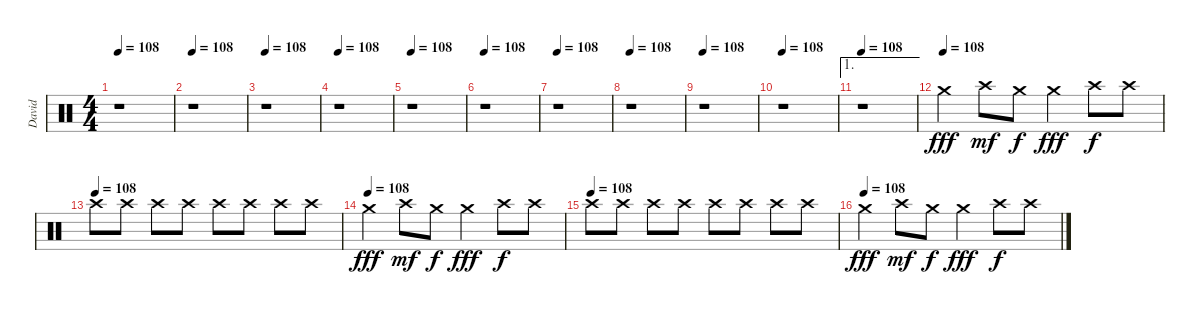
\track ("David" "David") {instrument percussion}
\staff {score}
\articulation defaults
\ts (4 4)
\tempo 108
\clef neutral
\ks c
r.1{dy f} |
\tempo 108
r.1 |
\tempo 108
r.1 |
\tempo 108
r.1 |
\tempo 108
r.1 |
\tempo 108
r.1 |
\tempo 108
r.1 |
\tempo 108
r.1 |
\tempo 108
r.1 |
\tempo 108
r.1 |
\ae 1
\tempo 108
r.1 |
\tempo (108)
"Crash medium (hit)".4{dy fff} "Crash high (hit)".8{dy mf} "Crash medium (hit)".8{dy f} "Crash medium (hit)".4{dy fff} "Crash high (hit)".8{dy f} "Crash high (hit)".8 |
\tempo (108)
"Crash high (hit)".8 "Crash high (hit)".8 "Crash high (hit)".8 "Crash high (hit)".8 "Crash high (hit)".8 "Crash high (hit)".8 "Crash high (hit)".8 "Crash high (hit)".8 |
\tempo (108)
"Crash medium (hit)".4{dy fff} "Crash high (hit)".8{dy mf} "Crash medium (hit)".8{dy f} "Crash medium (hit)".4{dy fff} "Crash high (hit)".8{dy f} "Crash high (hit)".8 |
\tempo (108)
"Crash high (hit)".8 "Crash high (hit)".8 "Crash high (hit)".8 "Crash high (hit)".8 "Crash high (hit)".8 "Crash high (hit)".8 "Crash high (hit)".8 "Crash high (hit)".8 |
\tempo (108)
"Crash medium (hit)".4{dy fff} "Crash high (hit)".8{dy mf} "Crash medium (hit)".8{dy f} "Crash medium (hit)".4{dy fff} "Crash high (hit)".8{dy f} "Crash high (hit)".8
